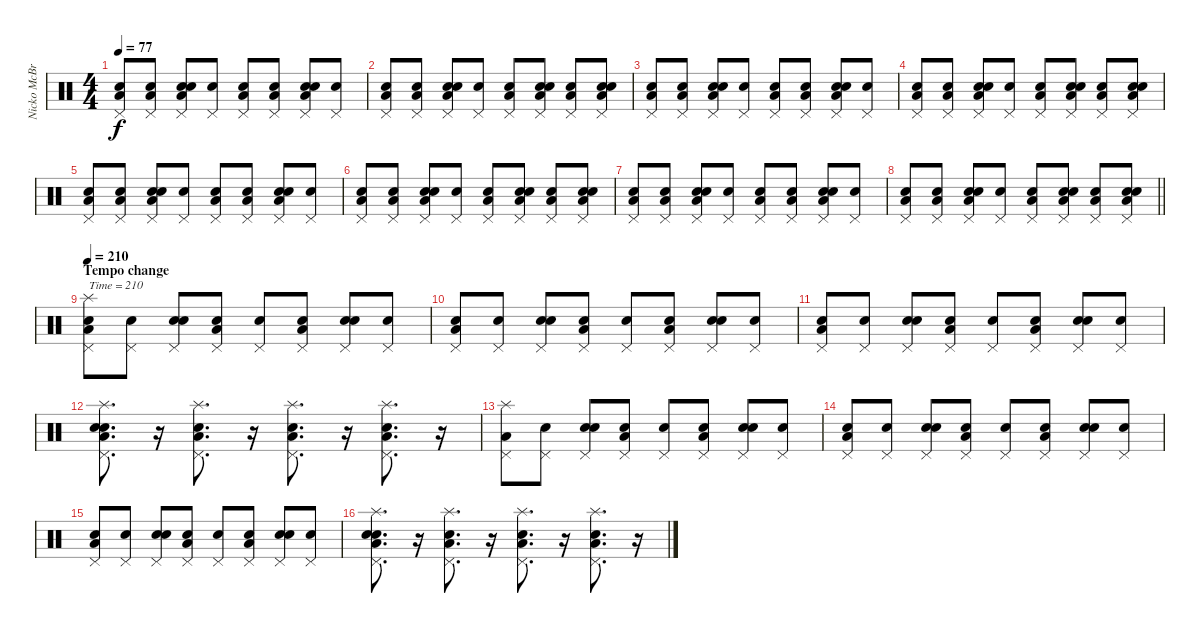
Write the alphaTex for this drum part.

\track ("Nicko McBrain" "Nicko McBr") {instrument percussion}
\staff {score}
\articulation defaults
\ts (4 4)
\tempo 77
\clef neutral
\ks c
("Snare (hit)" "Low Floor Tom (hit)" "Pedal Hi-Hat (hit)").8{dy f} ("Snare (hit)" "Low Floor Tom (hit)" "Pedal Hi-Hat (hit)").8 ("Snare (hit)" "Electric Snare (hit)" "Low Floor Tom (hit)" "Pedal Hi-Hat (hit)").8 ("Snare (hit)" "Pedal Hi-Hat (hit)").8 ("Snare (hit)" "Low Floor Tom (hit)" "Pedal Hi-Hat (hit)").8 ("Snare (hit)" "Low Floor Tom (hit)" "Pedal Hi-Hat (hit)").8 ("Snare (hit)" "Electric Snare (hit)" "Low Floor Tom (hit)" "Pedal Hi-Hat (hit)").8 ("Snare (hit)" "Pedal Hi-Hat (hit)").8 |
("Snare (hit)" "Low Floor Tom (hit)" "Pedal Hi-Hat (hit)").8 ("Snare (hit)" "Low Floor Tom (hit)" "Pedal Hi-Hat (hit)").8 ("Snare (hit)" "Electric Snare (hit)" "Low Floor Tom (hit)" "Pedal Hi-Hat (hit)").8 ("Snare (hit)" "Pedal Hi-Hat (hit)").8 ("Snare (hit)" "Low Floor Tom (hit)" "Pedal Hi-Hat (hit)").8 ("Snare (hit)" "Electric Snare (hit)" "Low Floor Tom (hit)" "Pedal Hi-Hat (hit)").8 ("Snare (hit)" "Low Floor Tom (hit)" "Pedal Hi-Hat (hit)").8 ("Snare (hit)" "Electric Snare (hit)" "Low Floor Tom (hit)" "Pedal Hi-Hat (hit)").8 |
("Snare (hit)" "Low Floor Tom (hit)" "Pedal Hi-Hat (hit)").8 ("Snare (hit)" "Low Floor Tom (hit)" "Pedal Hi-Hat (hit)").8 ("Snare (hit)" "Electric Snare (hit)" "Low Floor Tom (hit)" "Pedal Hi-Hat (hit)").8 ("Snare (hit)" "Pedal Hi-Hat (hit)").8 ("Snare (hit)" "Low Floor Tom (hit)" "Pedal Hi-Hat (hit)").8 ("Snare (hit)" "Low Floor Tom (hit)" "Pedal Hi-Hat (hit)").8 ("Snare (hit)" "Electric Snare (hit)" "Low Floor Tom (hit)" "Pedal Hi-Hat (hit)").8 ("Snare (hit)" "Pedal Hi-Hat (hit)").8 |
("Snare (hit)" "Low Floor Tom (hit)" "Pedal Hi-Hat (hit)").8 ("Snare (hit)" "Low Floor Tom (hit)" "Pedal Hi-Hat (hit)").8 ("Snare (hit)" "Electric Snare (hit)" "Low Floor Tom (hit)" "Pedal Hi-Hat (hit)").8 ("Snare (hit)" "Pedal Hi-Hat (hit)").8 ("Snare (hit)" "Low Floor Tom (hit)" "Pedal Hi-Hat (hit)").8 ("Snare (hit)" "Electric Snare (hit)" "Low Floor Tom (hit)" "Pedal Hi-Hat (hit)").8 ("Snare (hit)" "Low Floor Tom (hit)" "Pedal Hi-Hat (hit)").8 ("Snare (hit)" "Electric Snare (hit)" "Low Floor Tom (hit)" "Pedal Hi-Hat (hit)").8 |
("Snare (hit)" "Low Floor Tom (hit)" "Pedal Hi-Hat (hit)").8 ("Snare (hit)" "Low Floor Tom (hit)" "Pedal Hi-Hat (hit)").8 ("Snare (hit)" "Electric Snare (hit)" "Low Floor Tom (hit)" "Pedal Hi-Hat (hit)").8 ("Snare (hit)" "Pedal Hi-Hat (hit)").8 ("Snare (hit)" "Low Floor Tom (hit)" "Pedal Hi-Hat (hit)").8 ("Snare (hit)" "Low Floor Tom (hit)" "Pedal Hi-Hat (hit)").8 ("Snare (hit)" "Electric Snare (hit)" "Low Floor Tom (hit)" "Pedal Hi-Hat (hit)").8 ("Snare (hit)" "Pedal Hi-Hat (hit)").8 |
("Snare (hit)" "Low Floor Tom (hit)" "Pedal Hi-Hat (hit)").8 ("Snare (hit)" "Low Floor Tom (hit)" "Pedal Hi-Hat (hit)").8 ("Snare (hit)" "Electric Snare (hit)" "Low Floor Tom (hit)" "Pedal Hi-Hat (hit)").8 ("Snare (hit)" "Pedal Hi-Hat (hit)").8 ("Snare (hit)" "Low Floor Tom (hit)" "Pedal Hi-Hat (hit)").8 ("Snare (hit)" "Electric Snare (hit)" "Low Floor Tom (hit)" "Pedal Hi-Hat (hit)").8 ("Snare (hit)" "Low Floor Tom (hit)" "Pedal Hi-Hat (hit)").8 ("Snare (hit)" "Electric Snare (hit)" "Low Floor Tom (hit)" "Pedal Hi-Hat (hit)").8 |
("Snare (hit)" "Low Floor Tom (hit)" "Pedal Hi-Hat (hit)").8 ("Snare (hit)" "Low Floor Tom (hit)" "Pedal Hi-Hat (hit)").8 ("Snare (hit)" "Electric Snare (hit)" "Low Floor Tom (hit)" "Pedal Hi-Hat (hit)").8 ("Snare (hit)" "Pedal Hi-Hat (hit)").8 ("Snare (hit)" "Low Floor Tom (hit)" "Pedal Hi-Hat (hit)").8 ("Snare (hit)" "Low Floor Tom (hit)" "Pedal Hi-Hat (hit)").8 ("Snare (hit)" "Electric Snare (hit)" "Low Floor Tom (hit)" "Pedal Hi-Hat (hit)").8 ("Snare (hit)" "Pedal Hi-Hat (hit)").8 |
\barLineRight lightlight
("Snare (hit)" "Low Floor Tom (hit)" "Pedal Hi-Hat (hit)").8 ("Snare (hit)" "Low Floor Tom (hit)" "Pedal Hi-Hat (hit)").8 ("Snare (hit)" "Electric Snare (hit)" "Low Floor Tom (hit)" "Pedal Hi-Hat (hit)").8 ("Snare (hit)" "Pedal Hi-Hat (hit)").8 ("Snare (hit)" "Low Floor Tom (hit)" "Pedal Hi-Hat (hit)").8 ("Snare (hit)" "Electric Snare (hit)" "Low Floor Tom (hit)" "Pedal Hi-Hat (hit)").8 ("Snare (hit)" "Low Floor Tom (hit)" "Pedal Hi-Hat (hit)").8 ("Snare (hit)" "Electric Snare (hit)" "Low Floor Tom (hit)" "Pedal Hi-Hat (hit)").8 |
\section ("" "Tempo change")
\tempo 210
("Snare (hit)" "Low Floor Tom (hit)" "Pedal Hi-Hat (hit)" "Splash (hit)").8{txt "Time = 210"} ("Snare (hit)" "Pedal Hi-Hat (hit)").8 ("Snare (hit)" "Electric Snare (hit)" "Pedal Hi-Hat (hit)").8 ("Snare (hit)" "Low Floor Tom (hit)" "Pedal Hi-Hat (hit)").8 ("Snare (hit)" "Pedal Hi-Hat (hit)").8 ("Snare (hit)" "Low Floor Tom (hit)" "Pedal Hi-Hat (hit)").8 ("Snare (hit)" "Electric Snare (hit)" "Pedal Hi-Hat (hit)").8 ("Snare (hit)" "Pedal Hi-Hat (hit)").8 |
("Snare (hit)" "Low Floor Tom (hit)" "Pedal Hi-Hat (hit)").8 ("Snare (hit)" "Pedal Hi-Hat (hit)").8 ("Snare (hit)" "Electric Snare (hit)" "Pedal Hi-Hat (hit)").8 ("Snare (hit)" "Low Floor Tom (hit)" "Pedal Hi-Hat (hit)").8 ("Snare (hit)" "Pedal Hi-Hat (hit)").8 ("Snare (hit)" "Low Floor Tom (hit)" "Pedal Hi-Hat (hit)").8 ("Snare (hit)" "Electric Snare (hit)" "Pedal Hi-Hat (hit)").8 ("Snare (hit)" "Pedal Hi-Hat (hit)").8 |
("Snare (hit)" "Low Floor Tom (hit)" "Pedal Hi-Hat (hit)").8 ("Snare (hit)" "Pedal Hi-Hat (hit)").8 ("Snare (hit)" "Electric Snare (hit)" "Pedal Hi-Hat (hit)").8 ("Snare (hit)" "Low Floor Tom (hit)" "Pedal Hi-Hat (hit)").8 ("Snare (hit)" "Pedal Hi-Hat (hit)").8 ("Snare (hit)" "Low Floor Tom (hit)" "Pedal Hi-Hat (hit)").8 ("Snare (hit)" "Electric Snare (hit)" "Pedal Hi-Hat (hit)").8 ("Snare (hit)" "Pedal Hi-Hat (hit)").8 |
("Snare (hit)" "Electric Snare (hit)" "Low Floor Tom (hit)" "Pedal Hi-Hat (hit)" "Splash (hit)").8{d} r.16 ("Electric Snare (hit)" "Low Floor Tom (hit)" "Pedal Hi-Hat (hit)" "Splash (hit)").8{d} r.16 ("Electric Snare (hit)" "Low Floor Tom (hit)" "Pedal Hi-Hat (hit)" "Splash (hit)").8{d} r.16 ("Electric Snare (hit)" "Low Floor Tom (hit)" "Pedal Hi-Hat (hit)" "Splash (hit)").8{d} r.16 |
("Low Floor Tom (hit)" "Pedal Hi-Hat (hit)" "Splash (hit)").8 ("Snare (hit)" "Pedal Hi-Hat (hit)").8 ("Snare (hit)" "Electric Snare (hit)" "Pedal Hi-Hat (hit)").8 ("Snare (hit)" "Low Floor Tom (hit)" "Pedal Hi-Hat (hit)").8 ("Snare (hit)" "Pedal Hi-Hat (hit)").8 ("Snare (hit)" "Low Floor Tom (hit)" "Pedal Hi-Hat (hit)").8 ("Snare (hit)" "Electric Snare (hit)" "Pedal Hi-Hat (hit)").8 ("Snare (hit)" "Pedal Hi-Hat (hit)").8 |
("Snare (hit)" "Low Floor Tom (hit)" "Pedal Hi-Hat (hit)").8 ("Snare (hit)" "Pedal Hi-Hat (hit)").8 ("Snare (hit)" "Electric Snare (hit)" "Pedal Hi-Hat (hit)").8 ("Snare (hit)" "Low Floor Tom (hit)" "Pedal Hi-Hat (hit)").8 ("Snare (hit)" "Pedal Hi-Hat (hit)").8 ("Snare (hit)" "Low Floor Tom (hit)" "Pedal Hi-Hat (hit)").8 ("Snare (hit)" "Electric Snare (hit)" "Pedal Hi-Hat (hit)").8 ("Snare (hit)" "Pedal Hi-Hat (hit)").8 |
("Snare (hit)" "Low Floor Tom (hit)" "Pedal Hi-Hat (hit)").8 ("Snare (hit)" "Pedal Hi-Hat (hit)").8 ("Snare (hit)" "Electric Snare (hit)" "Pedal Hi-Hat (hit)").8 ("Snare (hit)" "Low Floor Tom (hit)" "Pedal Hi-Hat (hit)").8 ("Snare (hit)" "Pedal Hi-Hat (hit)").8 ("Snare (hit)" "Low Floor Tom (hit)" "Pedal Hi-Hat (hit)").8 ("Snare (hit)" "Electric Snare (hit)" "Pedal Hi-Hat (hit)").8 ("Snare (hit)" "Pedal Hi-Hat (hit)").8 |
("Snare (hit)" "Electric Snare (hit)" "Low Floor Tom (hit)" "Pedal Hi-Hat (hit)" "Splash (hit)").8{d} r.16 ("Electric Snare (hit)" "Low Floor Tom (hit)" "Pedal Hi-Hat (hit)" "Splash (hit)").8{d} r.16 ("Electric Snare (hit)" "Low Floor Tom (hit)" "Pedal Hi-Hat (hit)" "Splash (hit)").8{d} r.16 ("Electric Snare (hit)" "Low Floor Tom (hit)" "Pedal Hi-Hat (hit)" "Splash (hit)").8{d} r.16
